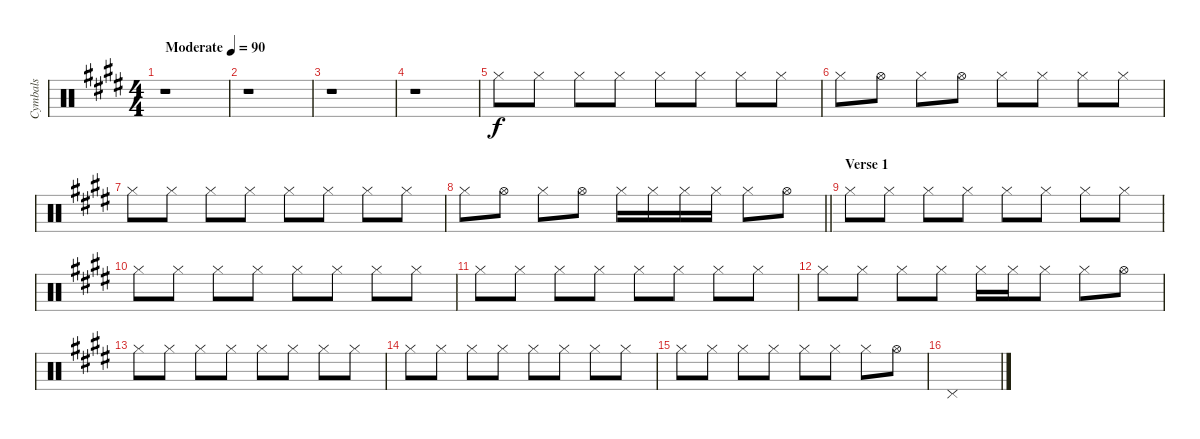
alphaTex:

\track ("Cymbals" "Cymbals") {instrument percussion}
\staff {score}
\articulation defaults
\ts (4 4)
\tempo (90 "Moderate")
\clef neutral
\ks e
r.1{dy f} |
r.1 |
r.1 |
r.1 |
"Hi-Hat (closed)".8 "Hi-Hat (closed)".8 "Hi-Hat (closed)".8 "Hi-Hat (closed)".8 "Hi-Hat (closed)".8 "Hi-Hat (closed)".8 "Hi-Hat (closed)".8 "Hi-Hat (closed)".8 |
"Hi-Hat (closed)".8 "Hi-Hat (open)".8 "Hi-Hat (closed)".8 "Hi-Hat (open)".8 "Hi-Hat (closed)".8 "Hi-Hat (closed)".8 "Hi-Hat (closed)".8 "Hi-Hat (closed)".8 |
"Hi-Hat (closed)".8 "Hi-Hat (closed)".8 "Hi-Hat (closed)".8 "Hi-Hat (closed)".8 "Hi-Hat (closed)".8 "Hi-Hat (closed)".8 "Hi-Hat (closed)".8 "Hi-Hat (closed)".8 |
\barLineRight lightlight "Hi-Hat (closed)".8 "Hi-Hat (open)".8 "Hi-Hat (closed)".8 "Hi-Hat (open)".8 "Hi-Hat (closed)".16 "Hi-Hat (closed)".16 "Hi-Hat (closed)".16 "Hi-Hat (closed)".16 "Hi-Hat (closed)".8 "Hi-Hat (open)".8
|
\section ("" "Verse 1")
"Hi-Hat (closed)".8 "Hi-Hat (closed)".8 "Hi-Hat (closed)".8 "Hi-Hat (closed)".8 "Hi-Hat (closed)".8 "Hi-Hat (closed)".8 "Hi-Hat (closed)".8 "Hi-Hat (closed)".8 |
"Hi-Hat (closed)".8 "Hi-Hat (closed)".8 "Hi-Hat (closed)".8 "Hi-Hat (closed)".8 "Hi-Hat (closed)".8 "Hi-Hat (closed)".8 "Hi-Hat (closed)".8 "Hi-Hat (closed)".8 |
"Hi-Hat (closed)".8 "Hi-Hat (closed)".8 "Hi-Hat (closed)".8 "Hi-Hat (closed)".8 "Hi-Hat (closed)".8 "Hi-Hat (closed)".8 "Hi-Hat (closed)".8 "Hi-Hat (closed)".8 |
"Hi-Hat (closed)".8 "Hi-Hat (closed)".8 "Hi-Hat (closed)".8 "Hi-Hat (closed)".8 "Hi-Hat (closed)".16 "Hi-Hat (closed)".16 "Hi-Hat (closed)".8 "Hi-Hat (closed)".8 "Hi-Hat (open)".8 |
"Hi-Hat (closed)".8 "Hi-Hat (closed)".8 "Hi-Hat (closed)".8 "Hi-Hat (closed)".8 "Hi-Hat (closed)".8 "Hi-Hat (closed)".8 "Hi-Hat (closed)".8 "Hi-Hat (closed)".8 |
"Hi-Hat (closed)".8 "Hi-Hat (closed)".8 "Hi-Hat (closed)".8 "Hi-Hat (closed)".8 "Hi-Hat (closed)".8 "Hi-Hat (closed)".8 "Hi-Hat (closed)".8 "Hi-Hat (closed)".8 |
"Hi-Hat (closed)".8 "Hi-Hat (closed)".8 "Hi-Hat (closed)".8 "Hi-Hat (closed)".8 "Hi-Hat (closed)".8 "Hi-Hat (closed)".8 "Hi-Hat (closed)".8 "Hi-Hat (open)".8 |
"Pedal Hi-Hat (hit)".1
